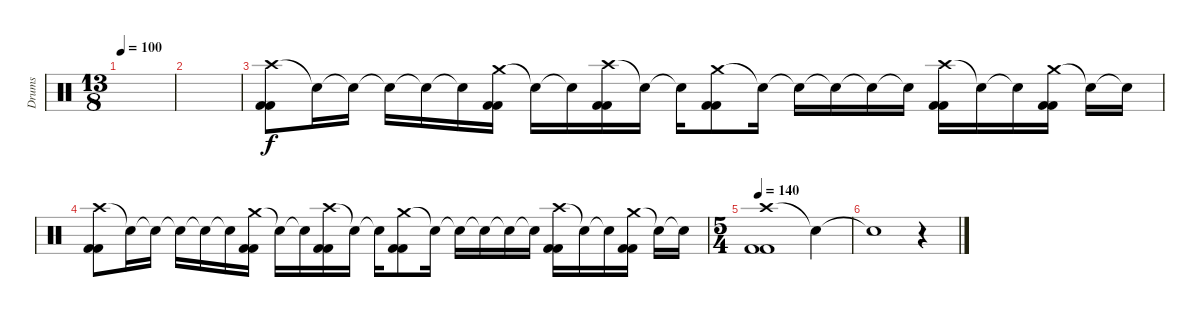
\track ("Drums" "Drums") {instrument percussion}
\staff {score}
\articulation defaults
\ts (13 8)
\tempo 100
\clef neutral
\ks c
|
|
("Crash high (hit)" "Kick (hit) 2" "Kick (hit) 2").8 "Snare (hit)"{t}.16 "Snare (hit)"{t}.16 "Snare (hit)"{t}.16 "Snare (hit)"{t}.16 "Snare (hit)"{t}.16 ("Crash medium (hit)" "Kick (hit) 2" "Kick (hit) 2").16 "Snare (hit)"{t}.16 "Snare (hit)"{t}.16 ("Crash high (hit)" "Kick (hit) 2" "Kick (hit) 2").16 "Snare (hit)"{t}.16 "Snare (hit)"{t}.16 ("Crash medium (hit)" "Kick (hit) 2" "Kick (hit) 2").8 "Snare (hit)"{t}.16 "Snare (hit)"{t}.16 "Snare (hit)"{t}.16 "Snare (hit)"{t}.16 "Snare (hit)"{t}.16 ("Crash high (hit)" "Kick (hit) 2" "Kick (hit) 2").16 "Snare (hit)"{t}.16 "Snare (hit)"{t}.16 ("Crash medium (hit)" "Kick (hit) 2" "Kick (hit) 2").16 "Snare (hit)"{t}.16 "Snare (hit)"{t}.16 |
("Crash high (hit)" "Kick (hit) 2" "Kick (hit) 2").8 "Snare (hit)"{t}.16 "Snare (hit)"{t}.16 "Snare (hit)"{t}.16 "Snare (hit)"{t}.16 "Snare (hit)"{t}.16 ("Crash medium (hit)" "Kick (hit) 2" "Kick (hit) 2").16 "Snare (hit)"{t}.16 "Snare (hit)"{t}.16 ("Crash high (hit)" "Kick (hit) 2" "Kick (hit) 2").16 "Snare (hit)"{t}.16 "Snare (hit)"{t}.16 ("Crash medium (hit)" "Kick (hit) 2" "Kick (hit) 2").8 "Snare (hit)"{t}.16 "Snare (hit)"{t}.16 "Snare (hit)"{t}.16 "Snare (hit)"{t}.16 "Snare (hit)"{t}.16 ("Crash high (hit)" "Kick (hit) 2" "Kick (hit) 2").16 "Snare (hit)"{t}.16 "Snare (hit)"{t}.16 ("Crash medium (hit)" "Kick (hit) 2" "Kick (hit) 2").16 "Snare (hit)"{t}.16 "Snare (hit)"{t}.16 |
\ts (5 4)
\tempo 140
("Crash high (hit)" "Kick (hit) 2" "Kick (hit) 2").1 "Snare (hit)"{t}.4 |
"Snare (hit)"{t}.1 r.4
